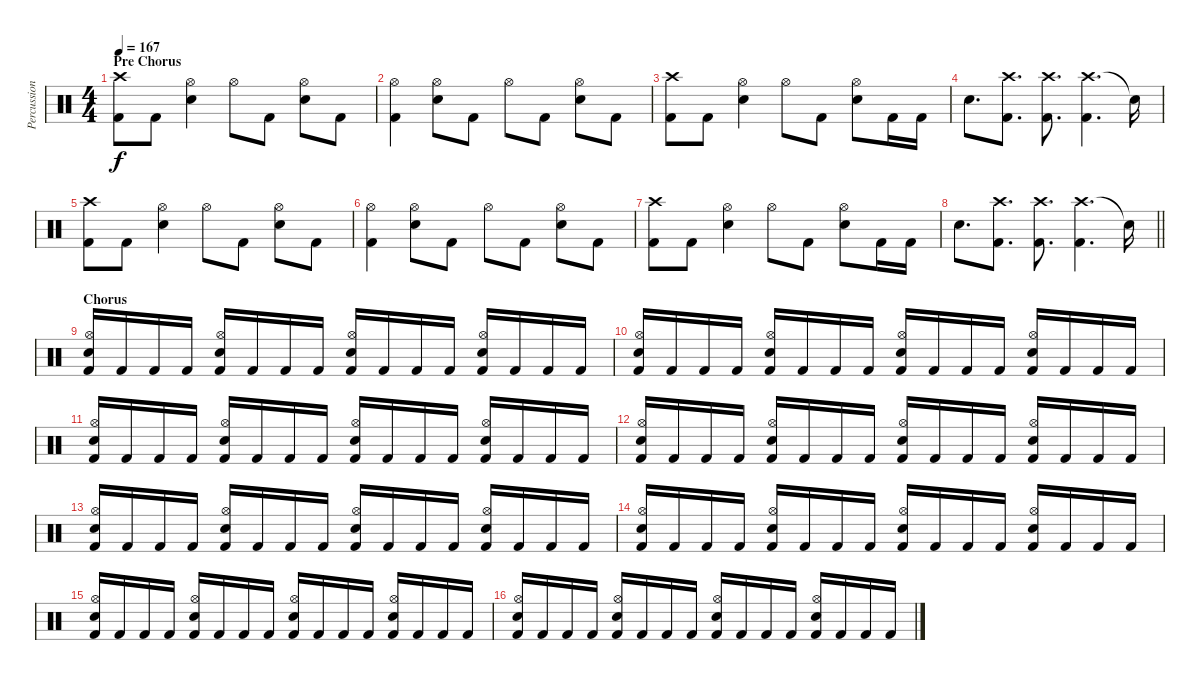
\track ("Percussion" "Percussion") {instrument percussion}
\staff {score}
\articulation defaults
\ts (4 4)
\section ("" "Pre Chorus")
\tempo 167
\clef neutral
\ks c
("Crash high (hit)" "Kick (hit) 2").8{dy f} "Kick (hit) 2".8 ("Hi-Hat (open)" "Snare (hit) 2").4 "Hi-Hat (open)".8 "Kick (hit) 2".8 ("Hi-Hat (open)" "Snare (hit) 2").8 "Kick (hit) 2".8 |
("Hi-Hat (open)" "Kick (hit) 2").4 ("Hi-Hat (open)" "Snare (hit) 2").8 "Kick (hit) 2".8 "Hi-Hat (open)".8 "Kick (hit) 2".8 ("Hi-Hat (open)" "Snare (hit) 2").8 "Kick (hit) 2".8 |
("Crash high (hit)" "Kick (hit) 2").8 "Kick (hit) 2".8 ("Hi-Hat (open)" "Snare (hit) 2").4 "Hi-Hat (open)".8 "Kick (hit) 2".8 ("Hi-Hat (open)" "Snare (hit) 2").8 "Kick (hit) 2".16 "Kick (hit) 2".16 |
"Snare (hit) 2".8{d} ("Crash high (hit)" "Kick (hit) 2").8{d} ("Crash high (hit)" "Kick (hit) 2").8{d} ("Crash high (hit)" "Kick (hit) 2").4{d} "Snare (hit)"{t}.16 |
("Crash high (hit)" "Kick (hit) 2").8 "Kick (hit) 2".8 ("Hi-Hat (open)" "Snare (hit) 2").4 "Hi-Hat (open)".8 "Kick (hit) 2".8 ("Hi-Hat (open)" "Snare (hit) 2").8 "Kick (hit) 2".8 |
("Hi-Hat (open)" "Kick (hit) 2").4 ("Hi-Hat (open)" "Snare (hit) 2").8 "Kick (hit) 2".8 "Hi-Hat (open)".8 "Kick (hit) 2".8 ("Hi-Hat (open)" "Snare (hit) 2").8 "Kick (hit) 2".8 |
("Crash high (hit)" "Kick (hit) 2").8 "Kick (hit) 2".8 ("Hi-Hat (open)" "Snare (hit) 2").4 "Hi-Hat (open)".8 "Kick (hit) 2".8 ("Hi-Hat (open)" "Snare (hit) 2").8 "Kick (hit) 2".16 "Kick (hit) 2".16 |
\barLineRight lightlight "Snare (hit) 2".8{d}
("Crash high (hit)" "Kick (hit) 2").8{d} ("Crash high (hit)" "Kick (hit) 2").8{d} ("Crash high (hit)" "Kick (hit) 2").4{d} "Snare (hit)"{t}.16 |
\section ("" "Chorus")
("Hi-Hat (open)" "Snare (hit) 2" "Kick (hit) 2").16 "Kick (hit) 2".16 "Kick (hit) 2".16 "Kick (hit) 2".16 ("Hi-Hat (open)" "Snare (hit) 2" "Kick (hit) 2").16 "Kick (hit) 2".16 "Kick (hit) 2".16 "Kick (hit) 2".16 ("Hi-Hat (open)" "Snare (hit) 2" "Kick (hit) 2").16 "Kick (hit) 2".16 "Kick (hit) 2".16 "Kick (hit) 2".16 ("Hi-Hat (open)" "Snare (hit) 2" "Kick (hit) 2").16 "Kick (hit) 2".16 "Kick (hit) 2".16 "Kick (hit) 2".16 |
("Hi-Hat (open)" "Snare (hit) 2" "Kick (hit) 2").16 "Kick (hit) 2".16 "Kick (hit) 2".16 "Kick (hit) 2".16 ("Hi-Hat (open)" "Snare (hit) 2" "Kick (hit) 2").16 "Kick (hit) 2".16 "Kick (hit) 2".16 "Kick (hit) 2".16 ("Hi-Hat (open)" "Snare (hit) 2" "Kick (hit) 2").16 "Kick (hit) 2".16 "Kick (hit) 2".16 "Kick (hit) 2".16 ("Hi-Hat (open)" "Snare (hit) 2" "Kick (hit) 2").16 "Kick (hit) 2".16 "Kick (hit) 2".16 "Kick (hit) 2".16 |
("Hi-Hat (open)" "Snare (hit) 2" "Kick (hit) 2").16 "Kick (hit) 2".16 "Kick (hit) 2".16 "Kick (hit) 2".16 ("Hi-Hat (open)" "Snare (hit) 2" "Kick (hit) 2").16 "Kick (hit) 2".16 "Kick (hit) 2".16 "Kick (hit) 2".16 ("Hi-Hat (open)" "Snare (hit) 2" "Kick (hit) 2").16 "Kick (hit) 2".16 "Kick (hit) 2".16 "Kick (hit) 2".16 ("Hi-Hat (open)" "Snare (hit) 2" "Kick (hit) 2").16 "Kick (hit) 2".16 "Kick (hit) 2".16 "Kick (hit) 2".16 |
("Hi-Hat (open)" "Snare (hit) 2" "Kick (hit) 2").16 "Kick (hit) 2".16 "Kick (hit) 2".16 "Kick (hit) 2".16 ("Hi-Hat (open)" "Snare (hit) 2" "Kick (hit) 2").16 "Kick (hit) 2".16 "Kick (hit) 2".16 "Kick (hit) 2".16 ("Hi-Hat (open)" "Snare (hit) 2" "Kick (hit) 2").16 "Kick (hit) 2".16 "Kick (hit) 2".16 "Kick (hit) 2".16 ("Hi-Hat (open)" "Snare (hit) 2" "Kick (hit) 2").16 "Kick (hit) 2".16 "Kick (hit) 2".16 "Kick (hit) 2".16 |
("Hi-Hat (open)" "Snare (hit) 2" "Kick (hit) 2").16 "Kick (hit) 2".16 "Kick (hit) 2".16 "Kick (hit) 2".16 ("Hi-Hat (open)" "Snare (hit) 2" "Kick (hit) 2").16 "Kick (hit) 2".16 "Kick (hit) 2".16 "Kick (hit) 2".16 ("Hi-Hat (open)" "Snare (hit) 2" "Kick (hit) 2").16 "Kick (hit) 2".16 "Kick (hit) 2".16 "Kick (hit) 2".16 ("Hi-Hat (open)" "Snare (hit) 2" "Kick (hit) 2").16 "Kick (hit) 2".16 "Kick (hit) 2".16 "Kick (hit) 2".16 |
("Hi-Hat (open)" "Snare (hit) 2" "Kick (hit) 2").16 "Kick (hit) 2".16 "Kick (hit) 2".16 "Kick (hit) 2".16 ("Hi-Hat (open)" "Snare (hit) 2" "Kick (hit) 2").16 "Kick (hit) 2".16 "Kick (hit) 2".16 "Kick (hit) 2".16 ("Hi-Hat (open)" "Snare (hit) 2" "Kick (hit) 2").16 "Kick (hit) 2".16 "Kick (hit) 2".16 "Kick (hit) 2".16 ("Hi-Hat (open)" "Snare (hit) 2" "Kick (hit) 2").16 "Kick (hit) 2".16 "Kick (hit) 2".16 "Kick (hit) 2".16 |
("Hi-Hat (open)" "Snare (hit) 2" "Kick (hit) 2").16 "Kick (hit) 2".16 "Kick (hit) 2".16 "Kick (hit) 2".16 ("Hi-Hat (open)" "Snare (hit) 2" "Kick (hit) 2").16 "Kick (hit) 2".16 "Kick (hit) 2".16 "Kick (hit) 2".16 ("Hi-Hat (open)" "Snare (hit) 2" "Kick (hit) 2").16 "Kick (hit) 2".16 "Kick (hit) 2".16 "Kick (hit) 2".16 ("Hi-Hat (open)" "Snare (hit) 2" "Kick (hit) 2").16 "Kick (hit) 2".16 "Kick (hit) 2".16 "Kick (hit) 2".16 |
("Hi-Hat (open)" "Snare (hit) 2" "Kick (hit) 2").16 "Kick (hit) 2".16 "Kick (hit) 2".16 "Kick (hit) 2".16 ("Hi-Hat (open)" "Snare (hit) 2" "Kick (hit) 2").16 "Kick (hit) 2".16 "Kick (hit) 2".16 "Kick (hit) 2".16 ("Hi-Hat (open)" "Snare (hit) 2" "Kick (hit) 2").16 "Kick (hit) 2".16 "Kick (hit) 2".16 "Kick (hit) 2".16 ("Hi-Hat (open)" "Snare (hit) 2" "Kick (hit) 2").16 "Kick (hit) 2".16 "Kick (hit) 2".16 "Kick (hit) 2".16
